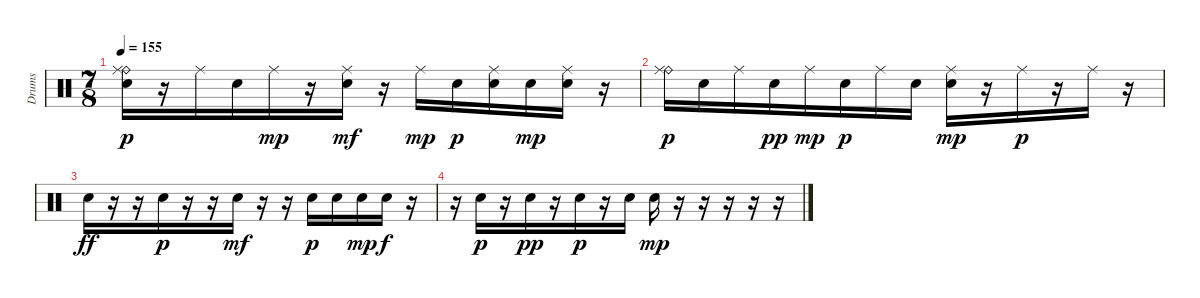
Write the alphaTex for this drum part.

\track ("Drums" "Drums") {instrument percussion}
\staff {score}
\articulation defaults
\ts (7 8)
\tempo 155
\clef neutral
\ks c
("Ride (bell)" "Ride (middle)" "Electric Snare (hit)").16{dy p} r.16 "Ride (middle)".16 "Electric Snare (hit)".16 "Ride (middle)".16{dy mp} r.16 ("Ride (middle)" "Electric Snare (hit)").16{dy mf} r.16 "Ride (middle)".16{dy mp} "Electric Snare (hit)".16{dy p} ("Ride (middle)" "Electric Snare (hit)").16 "Electric Snare (hit)".16{dy mp} ("Ride (middle)" "Electric Snare (hit)").16 r.16 |
("Ride (bell)" "Ride (middle)").16{dy p} "Electric Snare (hit)".16 "Ride (middle)".16 "Electric Snare (hit)".16{dy pp} "Ride (middle)".16{dy mp} "Electric Snare (hit)".16{dy p} "Ride (middle)".16 "Electric Snare (hit)".16 ("Ride (middle)" "Electric Snare (hit)").16{dy mp} r.16 "Ride (middle)".16{dy p} r.16 "Ride (middle)".16 r.16 |
"Electric Snare (hit)".16{dy ff} r.16 r.16 "Electric Snare (hit)".16{dy p} r.16 r.16 "Electric Snare (hit)".16{dy mf} r.16 r.16 "Electric Snare (hit)".16{dy p} "Electric Snare (hit)".16 "Electric Snare (hit)".16{dy mp} "Electric Snare (hit)".16{dy f} r.16 |
r.16 "Electric Snare (hit)".16{dy p} r.16 "Electric Snare (hit)".16{dy pp} r.16 "Electric Snare (hit)".16{dy p} r.16 "Electric Snare (hit)".16 "Electric Snare (hit)".16{dy mp} r.16 r.16 r.16 r.16 r.16
